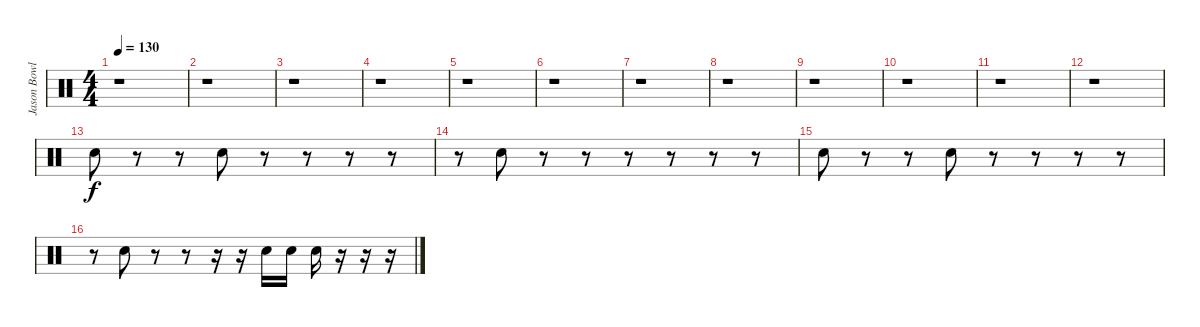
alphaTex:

\track ("Jason Bowld" "Jason Bowl") {instrument percussion}
\staff {score}
\articulation defaults
\ts (4 4)
\tempo 130
\clef neutral
\ks c
r.1{dy f} |
r.1 |
r.1 |
r.1 |
r.1 |
r.1 |
r.1 |
r.1 |
r.1 |
r.1 |
r.1 |
r.1 |
"Snare (hit) 2".8 r.8 r.8 "Snare (hit) 2".8 r.8 r.8 r.8 r.8 |
r.8 "Snare (hit) 2".8 r.8 r.8 r.8 r.8 r.8 r.8 |
"Snare (hit) 2".8 r.8 r.8 "Snare (hit) 2".8 r.8 r.8 r.8 r.8 |
r.8 "Snare (hit) 2".8 r.8 r.8 r.16 r.16 "Snare (hit) 2".16 "Snare (hit) 2".16 "Snare (hit) 2".16 r.16 r.16 r.16
